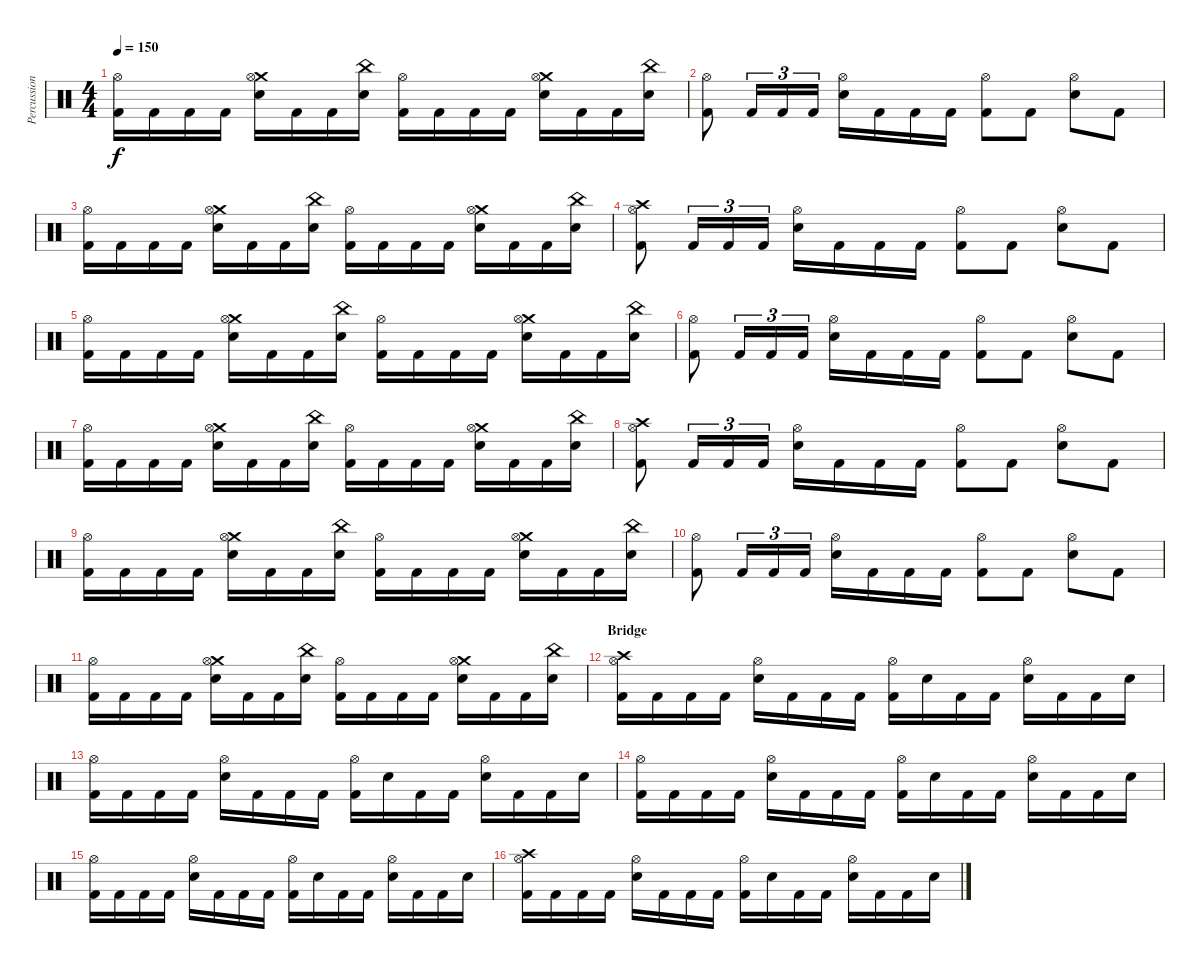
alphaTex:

\track ("Percussions" "Percussion") {instrument percussion}
\staff {score}
\articulation defaults
\ts (4 4)
\tempo 150
\clef neutral
\ks c
("Hi-Hat (open)" "Kick (hit) 2").16{dy f} "Kick (hit) 2".16 "Kick (hit) 2".16 "Kick (hit) 2".16 ("Crash medium (hit)" "Hi-Hat (open)" "Electric Snare (hit)").16 "Kick (hit) 2".16 "Kick (hit) 2".16 ("China (hit)" "Electric Snare (hit)").16 ("Hi-Hat (open)" "Kick (hit) 2").16 "Kick (hit) 2".16 "Kick (hit) 2".16 "Kick (hit) 2".16 ("Crash medium (hit)" "Hi-Hat (open)" "Electric Snare (hit)").16 "Kick (hit) 2".16 "Kick (hit) 2".16 ("China (hit)" "Electric Snare (hit)").16 |
("Hi-Hat (open)" "Kick (hit) 2").8 "Kick (hit) 2".16{tu (3 2)} "Kick (hit) 2".16{tu (3 2)} "Kick (hit) 2".16{tu (3 2)} ("Hi-Hat (open)" "Electric Snare (hit)").16 "Kick (hit) 2".16 "Kick (hit) 2".16 "Kick (hit) 2".16 ("Hi-Hat (open)" "Kick (hit) 2").8 "Kick (hit) 2".8 ("Hi-Hat (open)" "Electric Snare (hit)").8 "Kick (hit) 2".8 |
("Hi-Hat (open)" "Kick (hit) 2").16 "Kick (hit) 2".16 "Kick (hit) 2".16 "Kick (hit) 2".16 ("Crash medium (hit)" "Hi-Hat (open)" "Electric Snare (hit)").16 "Kick (hit) 2".16 "Kick (hit) 2".16 ("China (hit)" "Electric Snare (hit)").16 ("Hi-Hat (open)" "Kick (hit) 2").16 "Kick (hit) 2".16 "Kick (hit) 2".16 "Kick (hit) 2".16 ("Crash medium (hit)" "Hi-Hat (open)" "Electric Snare (hit)").16 "Kick (hit) 2".16 "Kick (hit) 2".16 ("China (hit)" "Electric Snare (hit)").16 |
("Crash high (hit)" "Hi-Hat (open)" "Kick (hit) 2").8 "Kick (hit) 2".16{tu (3 2)} "Kick (hit) 2".16{tu (3 2)} "Kick (hit) 2".16{tu (3 2)} ("Hi-Hat (open)" "Electric Snare (hit)").16 "Kick (hit) 2".16 "Kick (hit) 2".16 "Kick (hit) 2".16 ("Hi-Hat (open)" "Kick (hit) 2").8 "Kick (hit) 2".8 ("Hi-Hat (open)" "Electric Snare (hit)").8 "Kick (hit) 2".8 |
("Hi-Hat (open)" "Kick (hit) 2").16 "Kick (hit) 2".16 "Kick (hit) 2".16 "Kick (hit) 2".16 ("Crash medium (hit)" "Hi-Hat (open)" "Electric Snare (hit)").16 "Kick (hit) 2".16 "Kick (hit) 2".16 ("China (hit)" "Electric Snare (hit)").16 ("Hi-Hat (open)" "Kick (hit) 2").16 "Kick (hit) 2".16 "Kick (hit) 2".16 "Kick (hit) 2".16 ("Crash medium (hit)" "Hi-Hat (open)" "Electric Snare (hit)").16 "Kick (hit) 2".16 "Kick (hit) 2".16 ("China (hit)" "Electric Snare (hit)").16 |
("Hi-Hat (open)" "Kick (hit) 2").8 "Kick (hit) 2".16{tu (3 2)} "Kick (hit) 2".16{tu (3 2)} "Kick (hit) 2".16{tu (3 2)} ("Hi-Hat (open)" "Electric Snare (hit)").16 "Kick (hit) 2".16 "Kick (hit) 2".16 "Kick (hit) 2".16 ("Hi-Hat (open)" "Kick (hit) 2").8 "Kick (hit) 2".8 ("Hi-Hat (open)" "Electric Snare (hit)").8 "Kick (hit) 2".8 |
("Hi-Hat (open)" "Kick (hit) 2").16 "Kick (hit) 2".16 "Kick (hit) 2".16 "Kick (hit) 2".16 ("Crash medium (hit)" "Hi-Hat (open)" "Electric Snare (hit)").16 "Kick (hit) 2".16 "Kick (hit) 2".16 ("China (hit)" "Electric Snare (hit)").16 ("Hi-Hat (open)" "Kick (hit) 2").16 "Kick (hit) 2".16 "Kick (hit) 2".16 "Kick (hit) 2".16 ("Crash medium (hit)" "Hi-Hat (open)" "Electric Snare (hit)").16 "Kick (hit) 2".16 "Kick (hit) 2".16 ("China (hit)" "Electric Snare (hit)").16 |
("Crash high (hit)" "Hi-Hat (open)" "Kick (hit) 2").8 "Kick (hit) 2".16{tu (3 2)} "Kick (hit) 2".16{tu (3 2)} "Kick (hit) 2".16{tu (3 2)} ("Hi-Hat (open)" "Electric Snare (hit)").16 "Kick (hit) 2".16 "Kick (hit) 2".16 "Kick (hit) 2".16 ("Hi-Hat (open)" "Kick (hit) 2").8 "Kick (hit) 2".8 ("Hi-Hat (open)" "Electric Snare (hit)").8 "Kick (hit) 2".8 |
("Hi-Hat (open)" "Kick (hit) 2").16 "Kick (hit) 2".16 "Kick (hit) 2".16 "Kick (hit) 2".16 ("Crash medium (hit)" "Hi-Hat (open)" "Electric Snare (hit)").16 "Kick (hit) 2".16 "Kick (hit) 2".16 ("China (hit)" "Electric Snare (hit)").16 ("Hi-Hat (open)" "Kick (hit) 2").16 "Kick (hit) 2".16 "Kick (hit) 2".16 "Kick (hit) 2".16 ("Crash medium (hit)" "Hi-Hat (open)" "Electric Snare (hit)").16 "Kick (hit) 2".16 "Kick (hit) 2".16 ("China (hit)" "Electric Snare (hit)").16 |
("Hi-Hat (open)" "Kick (hit) 2").8 "Kick (hit) 2".16{tu (3 2)} "Kick (hit) 2".16{tu (3 2)} "Kick (hit) 2".16{tu (3 2)} ("Hi-Hat (open)" "Electric Snare (hit)").16 "Kick (hit) 2".16 "Kick (hit) 2".16 "Kick (hit) 2".16 ("Hi-Hat (open)" "Kick (hit) 2").8 "Kick (hit) 2".8 ("Hi-Hat (open)" "Electric Snare (hit)").8 "Kick (hit) 2".8 |
("Hi-Hat (open)" "Kick (hit) 2").16 "Kick (hit) 2".16 "Kick (hit) 2".16 "Kick (hit) 2".16 ("Crash medium (hit)" "Hi-Hat (open)" "Electric Snare (hit)").16 "Kick (hit) 2".16 "Kick (hit) 2".16 ("China (hit)" "Electric Snare (hit)").16 ("Hi-Hat (open)" "Kick (hit) 2").16 "Kick (hit) 2".16 "Kick (hit) 2".16 "Kick (hit) 2".16 ("Crash medium (hit)" "Hi-Hat (open)" "Electric Snare (hit)").16 "Kick (hit) 2".16 "Kick (hit) 2".16 ("China (hit)" "Electric Snare (hit)").16 |
\section ("" "Bridge")
("Crash high (hit)" "Hi-Hat (open)" "Kick (hit) 2").16 "Kick (hit) 2".16 "Kick (hit) 2".16 "Kick (hit) 2".16 ("Hi-Hat (open)" "Electric Snare (hit)").16 "Kick (hit) 2".16 "Kick (hit) 2".16 "Kick (hit) 2".16 ("Hi-Hat (open)" "Kick (hit) 2").16 "Electric Snare (hit)".16 "Kick (hit) 2".16 "Kick (hit) 2".16 ("Hi-Hat (open)" "Electric Snare (hit)").16 "Kick (hit) 2".16 "Kick (hit) 2".16 "Electric Snare (hit)".16 |
("Hi-Hat (open)" "Kick (hit) 2").16 "Kick (hit) 2".16 "Kick (hit) 2".16 "Kick (hit) 2".16 ("Hi-Hat (open)" "Electric Snare (hit)").16 "Kick (hit) 2".16 "Kick (hit) 2".16 "Kick (hit) 2".16 ("Hi-Hat (open)" "Kick (hit) 2").16 "Electric Snare (hit)".16 "Kick (hit) 2".16 "Kick (hit) 2".16 ("Hi-Hat (open)" "Electric Snare (hit)").16 "Kick (hit) 2".16 "Kick (hit) 2".16 "Electric Snare (hit)".16 |
("Hi-Hat (open)" "Kick (hit) 2").16 "Kick (hit) 2".16 "Kick (hit) 2".16 "Kick (hit) 2".16 ("Hi-Hat (open)" "Electric Snare (hit)").16 "Kick (hit) 2".16 "Kick (hit) 2".16 "Kick (hit) 2".16 ("Hi-Hat (open)" "Kick (hit) 2").16 "Electric Snare (hit)".16 "Kick (hit) 2".16 "Kick (hit) 2".16 ("Hi-Hat (open)" "Electric Snare (hit)").16 "Kick (hit) 2".16 "Kick (hit) 2".16 "Electric Snare (hit)".16 |
("Hi-Hat (open)" "Kick (hit) 2").16 "Kick (hit) 2".16 "Kick (hit) 2".16 "Kick (hit) 2".16 ("Hi-Hat (open)" "Electric Snare (hit)").16 "Kick (hit) 2".16 "Kick (hit) 2".16 "Kick (hit) 2".16 ("Hi-Hat (open)" "Kick (hit) 2").16 "Electric Snare (hit)".16 "Kick (hit) 2".16 "Kick (hit) 2".16 ("Hi-Hat (open)" "Electric Snare (hit)").16 "Kick (hit) 2".16 "Kick (hit) 2".16 "Electric Snare (hit)".16 |
("Crash high (hit)" "Hi-Hat (open)" "Kick (hit) 2").16 "Kick (hit) 2".16 "Kick (hit) 2".16 "Kick (hit) 2".16 ("Hi-Hat (open)" "Electric Snare (hit)").16 "Kick (hit) 2".16 "Kick (hit) 2".16 "Kick (hit) 2".16 ("Hi-Hat (open)" "Kick (hit) 2").16 "Electric Snare (hit)".16 "Kick (hit) 2".16 "Kick (hit) 2".16 ("Hi-Hat (open)" "Electric Snare (hit)").16 "Kick (hit) 2".16 "Kick (hit) 2".16 "Electric Snare (hit)".16
